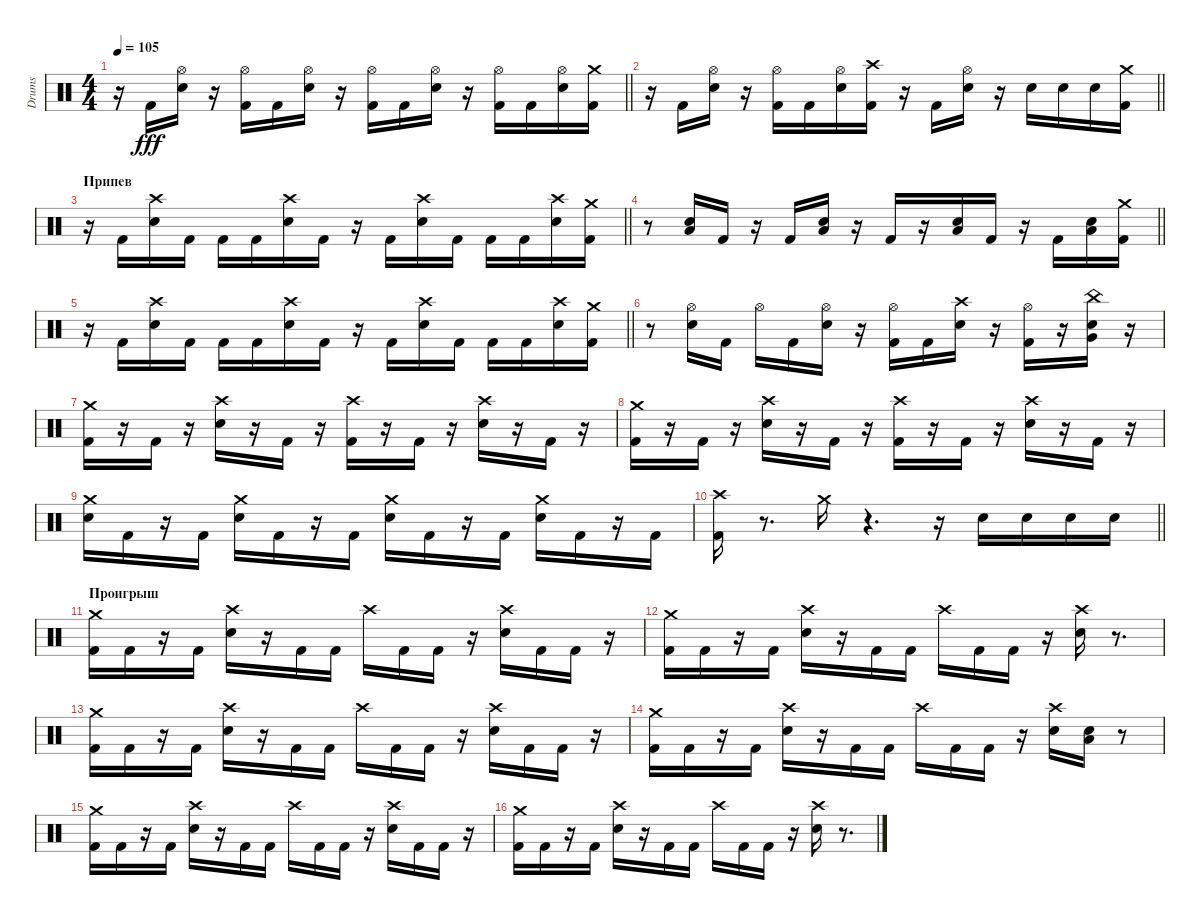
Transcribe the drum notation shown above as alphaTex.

\track ("Drums" "Drums") {instrument percussion}
\staff {score}
\articulation defaults
\ts (4 4)
\tempo 105
\clef neutral
\barLineRight lightlight
\ks c
r.16{dy fff} "Kick (hit) 2".16 ("Electric Snare (hit)" "Hi-Hat (open)").16 r.16 ("Kick (hit) 2" "Hi-Hat (open)").16 "Kick (hit) 2".16 ("Electric Snare (hit)" "Hi-Hat (open)").16 r.16 ("Kick (hit) 2" "Hi-Hat (open)").16 "Kick (hit) 2".16 ("Electric Snare (hit)" "Hi-Hat (open)").16 r.16 ("Kick (hit) 2" "Hi-Hat (open)").16 "Kick (hit) 2".16 ("Electric Snare (hit)" "Hi-Hat (open)").16 ("Kick (hit) 2" "Crash medium (hit)").16 |
\section ("" "")
\barLineRight lightlight
r.16 "Kick (hit) 2".16 ("Electric Snare (hit)" "Hi-Hat (open)").16 r.16 ("Kick (hit) 2" "Hi-Hat (open)").16 "Kick (hit) 2".16 ("Electric Snare (hit)" "Hi-Hat (open)").16 ("Kick (hit) 2" "Crash high (hit)").16 r.16 "Kick (hit) 2".16 ("Electric Snare (hit)" "Hi-Hat (open)").16 r.16 "Electric Snare (hit)".16 "Electric Snare (hit)".16 "Electric Snare (hit)".16 ("Kick (hit) 2" "Crash medium (hit)").16 |
\section ("" "Припев")
\barLineRight lightlight
r.16 "Kick (hit) 2".16 ("Electric Snare (hit)" "Crash high (hit)").16 "Kick (hit) 2".16 "Kick (hit) 2".16 "Kick (hit) 2".16 ("Electric Snare (hit)" "Crash high (hit)").16 "Kick (hit) 2".16 r.16 "Kick (hit) 2".16 ("Electric Snare (hit)" "Crash high (hit)").16 "Kick (hit) 2".16 "Kick (hit) 2".16 "Kick (hit) 2".16 ("Electric Snare (hit)" "Crash high (hit)").16 ("Kick (hit) 2" "Crash medium (hit)").16 |
\barLineRight lightlight
r.8 ("Electric Snare (hit)" "Low Floor Tom (hit)").16 "Kick (hit) 2".16 r.16 "Kick (hit) 2".16 ("Electric Snare (hit)" "Low Floor Tom (hit)").16 r.16 "Kick (hit) 2".16 r.16 ("Electric Snare (hit)" "Low Floor Tom (hit)").16 "Kick (hit) 2".16 r.16 "Kick (hit) 2".16 ("Electric Snare (hit)" "Low Floor Tom (hit)").16 ("Kick (hit) 2" "Crash medium (hit)").16 |
\barLineRight lightlight
r.16 "Kick (hit) 2".16 ("Electric Snare (hit)" "Crash high (hit)").16 "Kick (hit) 2".16 "Kick (hit) 2".16 "Kick (hit) 2".16 ("Electric Snare (hit)" "Crash high (hit)").16 "Kick (hit) 2".16 r.16 "Kick (hit) 2".16 ("Electric Snare (hit)" "Crash high (hit)").16 "Kick (hit) 2".16 "Kick (hit) 2".16 "Kick (hit) 2".16 ("Electric Snare (hit)" "Crash high (hit)").16 ("Kick (hit) 2" "Crash medium (hit)").16 |
r.8 ("Electric Snare (hit)" "Hi-Hat (open)").16 "Kick (hit) 2".16 "Hi-Hat (open)".16 "Kick (hit) 2".16 ("Electric Snare (hit)" "Hi-Hat (open)").16 r.16 ("Kick (hit) 2" "Hi-Hat (open)").16 "Kick (hit) 2".16 ("Electric Snare (hit)" "Crash high (hit)").16 r.16 ("Kick (hit) 2" "Hi-Hat (open)").16 r.16 ("Electric Snare (hit)" "Very Low Tom (hit)" "China (hit)").16 r.16 |
("Kick (hit) 2" "Crash medium (hit)").16 r.16 "Kick (hit) 2".16 r.16 ("Electric Snare (hit)" "Crash high (hit)").16 r.16 "Kick (hit) 2".16 r.16 ("Kick (hit) 2" "Crash high (hit)").16 r.16 "Kick (hit) 2".16 r.16 ("Electric Snare (hit)" "Crash high (hit)").16 r.16 "Kick (hit) 2".16 r.16 |
("Kick (hit) 2" "Crash medium (hit)").16 r.16 "Kick (hit) 2".16 r.16 ("Electric Snare (hit)" "Crash high (hit)").16 r.16 "Kick (hit) 2".16 r.16 ("Kick (hit) 2" "Crash high (hit)").16 r.16 "Kick (hit) 2".16 r.16 ("Electric Snare (hit)" "Crash high (hit)").16 r.16 "Kick (hit) 2".16 r.16 |
("Electric Snare (hit)" "Crash medium (hit)").16 "Kick (hit) 2".16 r.16 "Kick (hit) 2".16 ("Electric Snare (hit)" "Crash medium (hit)").16 "Kick (hit) 2".16 r.16 "Kick (hit) 2".16 ("Electric Snare (hit)" "Crash medium (hit)").16 "Kick (hit) 2".16 r.16 "Kick (hit) 2".16 ("Electric Snare (hit)" "Crash medium (hit)").16 "Kick (hit) 2".16 r.16 "Kick (hit) 2".16 |
\barLineRight lightlight
("Kick (hit) 2" "Crash high (hit)").16 r.8{d} "Crash medium (hit)".16 r.4{d} r.16 "Electric Snare (hit)".16 "Electric Snare (hit)".16 "Electric Snare (hit)".16 "Electric Snare (hit)".16 |
\section ("" "Проигрыш")
("Kick (hit) 2" "Crash medium (hit)").16 "Kick (hit) 2".16 r.16 "Kick (hit) 2".16 ("Electric Snare (hit)" "Crash high (hit)").16 r.16 "Kick (hit) 2".16 "Kick (hit) 2".16 "Crash high (hit)".16 "Kick (hit) 2".16 "Kick (hit) 2".16 r.16 ("Electric Snare (hit)" "Crash high (hit)").16 "Kick (hit) 2".16 "Kick (hit) 2".16 r.16 |
("Kick (hit) 2" "Crash medium (hit)").16 "Kick (hit) 2".16 r.16 "Kick (hit) 2".16 ("Electric Snare (hit)" "Crash high (hit)").16 r.16 "Kick (hit) 2".16 "Kick (hit) 2".16 "Crash high (hit)".16 "Kick (hit) 2".16 "Kick (hit) 2".16 r.16 ("Electric Snare (hit)" "Crash high (hit)").16 r.8{d} |
("Kick (hit) 2" "Crash medium (hit)").16 "Kick (hit) 2".16 r.16 "Kick (hit) 2".16 ("Electric Snare (hit)" "Crash high (hit)").16 r.16 "Kick (hit) 2".16 "Kick (hit) 2".16 "Crash high (hit)".16 "Kick (hit) 2".16 "Kick (hit) 2".16 r.16 ("Electric Snare (hit)" "Crash high (hit)").16 "Kick (hit) 2".16 "Kick (hit) 2".16 r.16 |
("Kick (hit) 2" "Crash medium (hit)").16 "Kick (hit) 2".16 r.16 "Kick (hit) 2".16 ("Electric Snare (hit)" "Crash high (hit)").16 r.16 "Kick (hit) 2".16 "Kick (hit) 2".16 "Crash high (hit)".16 "Kick (hit) 2".16 "Kick (hit) 2".16 r.16 ("Electric Snare (hit)" "Crash high (hit)").16 ("Electric Snare (hit)" "Low Floor Tom (hit)").16 r.8 |
("Kick (hit) 2" "Crash medium (hit)").16 "Kick (hit) 2".16 r.16 "Kick (hit) 2".16 ("Electric Snare (hit)" "Crash high (hit)").16 r.16 "Kick (hit) 2".16 "Kick (hit) 2".16 "Crash high (hit)".16 "Kick (hit) 2".16 "Kick (hit) 2".16 r.16 ("Electric Snare (hit)" "Crash high (hit)").16 "Kick (hit) 2".16 "Kick (hit) 2".16 r.16 |
("Kick (hit) 2" "Crash medium (hit)").16 "Kick (hit) 2".16 r.16 "Kick (hit) 2".16 ("Electric Snare (hit)" "Crash high (hit)").16 r.16 "Kick (hit) 2".16 "Kick (hit) 2".16 "Crash high (hit)".16 "Kick (hit) 2".16 "Kick (hit) 2".16 r.16 ("Electric Snare (hit)" "Crash high (hit)").16 r.8{d}
